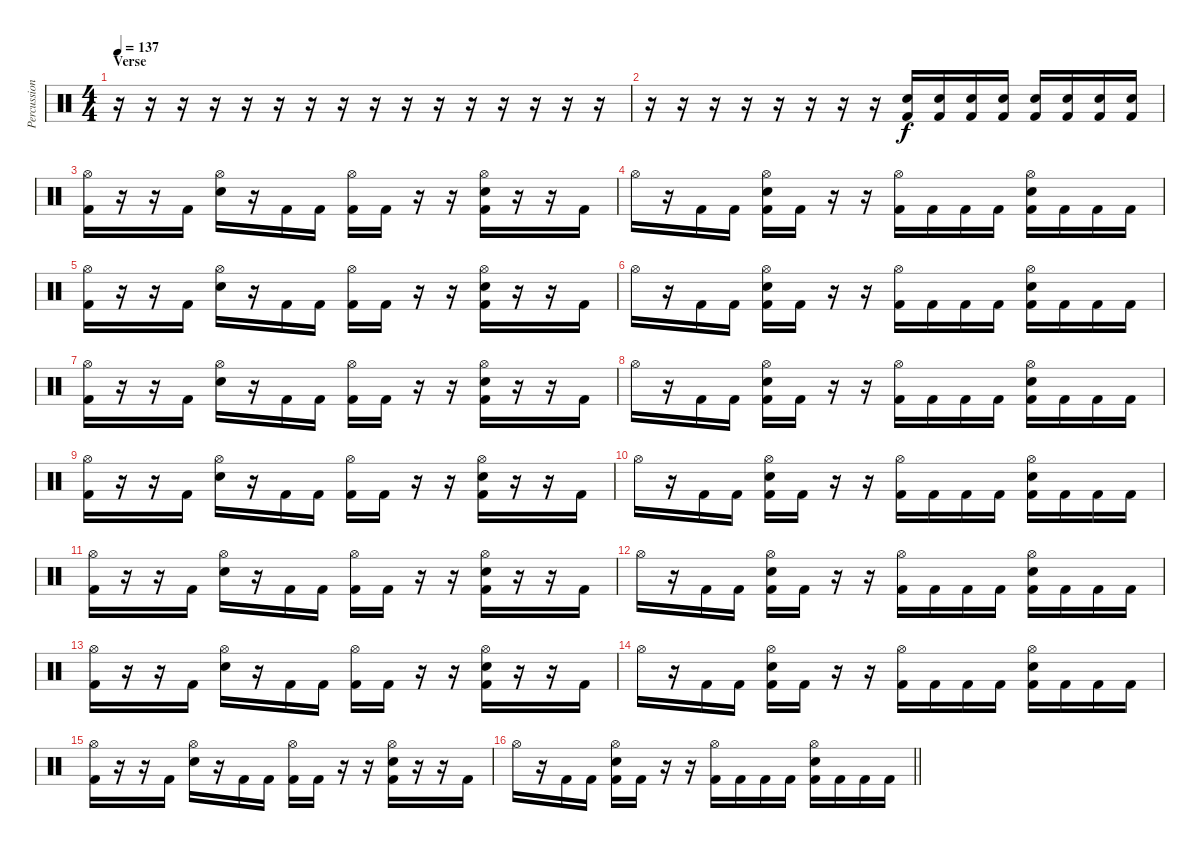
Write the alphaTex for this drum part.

\track ("Percussion" "Percussion") {instrument percussion}
\staff {score}
\articulation defaults
\ts (4 4)
\section ("" "Verse")
\tempo 137
\clef neutral
\ks c
r.16{dy f} r.16 r.16 r.16 r.16 r.16 r.16 r.16 r.16 r.16 r.16 r.16 r.16 r.16 r.16 r.16 |
r.16 r.16 r.16 r.16 r.16 r.16 r.16 r.16 ("Snare (hit) 2" "Kick (hit) 2").16 ("Snare (hit) 2" "Kick (hit) 2").16 ("Snare (hit) 2" "Kick (hit) 2").16 ("Snare (hit) 2" "Kick (hit) 2").16 ("Snare (hit) 2" "Kick (hit) 2").16 ("Snare (hit) 2" "Kick (hit) 2").16 ("Snare (hit) 2" "Kick (hit) 2").16 ("Snare (hit) 2" "Kick (hit) 2").16 |
("Hi-Hat (open)" "Kick (hit) 2").16 r.16 r.16 "Kick (hit) 2".16 ("Hi-Hat (open)" "Snare (hit) 2").16 r.16 "Kick (hit) 2".16 "Kick (hit) 2".16 ("Hi-Hat (open)" "Kick (hit) 2").16 "Kick (hit) 2".16 r.16 r.16 ("Hi-Hat (open)" "Snare (hit) 2" "Kick (hit) 2").16 r.16 r.16 "Kick (hit) 2".16 |
"Hi-Hat (open)".16 r.16 "Kick (hit) 2".16 "Kick (hit) 2".16 ("Hi-Hat (open)" "Snare (hit) 2" "Kick (hit) 2").16 "Kick (hit) 2".16 r.16 r.16 ("Hi-Hat (open)" "Kick (hit) 2").16 "Kick (hit) 2".16 "Kick (hit) 2".16 "Kick (hit) 2".16 ("Hi-Hat (open)" "Snare (hit) 2" "Kick (hit) 2").16 "Kick (hit) 2".16 "Kick (hit) 2".16 "Kick (hit) 2".16 |
("Hi-Hat (open)" "Kick (hit) 2").16 r.16 r.16 "Kick (hit) 2".16 ("Hi-Hat (open)" "Snare (hit) 2").16 r.16 "Kick (hit) 2".16 "Kick (hit) 2".16 ("Hi-Hat (open)" "Kick (hit) 2").16 "Kick (hit) 2".16 r.16 r.16 ("Hi-Hat (open)" "Snare (hit) 2" "Kick (hit) 2").16 r.16 r.16 "Kick (hit) 2".16 |
"Hi-Hat (open)".16 r.16 "Kick (hit) 2".16 "Kick (hit) 2".16 ("Hi-Hat (open)" "Snare (hit) 2" "Kick (hit) 2").16 "Kick (hit) 2".16 r.16 r.16 ("Hi-Hat (open)" "Kick (hit) 2").16 "Kick (hit) 2".16 "Kick (hit) 2".16 "Kick (hit) 2".16 ("Hi-Hat (open)" "Snare (hit) 2" "Kick (hit) 2").16 "Kick (hit) 2".16 "Kick (hit) 2".16 "Kick (hit) 2".16 |
("Hi-Hat (open)" "Kick (hit) 2").16 r.16 r.16 "Kick (hit) 2".16 ("Hi-Hat (open)" "Snare (hit) 2").16 r.16 "Kick (hit) 2".16 "Kick (hit) 2".16 ("Hi-Hat (open)" "Kick (hit) 2").16 "Kick (hit) 2".16 r.16 r.16 ("Hi-Hat (open)" "Snare (hit) 2" "Kick (hit) 2").16 r.16 r.16 "Kick (hit) 2".16 |
"Hi-Hat (open)".16 r.16 "Kick (hit) 2".16 "Kick (hit) 2".16 ("Hi-Hat (open)" "Snare (hit) 2" "Kick (hit) 2").16 "Kick (hit) 2".16 r.16 r.16 ("Hi-Hat (open)" "Kick (hit) 2").16 "Kick (hit) 2".16 "Kick (hit) 2".16 "Kick (hit) 2".16 ("Hi-Hat (open)" "Snare (hit) 2" "Kick (hit) 2").16 "Kick (hit) 2".16 "Kick (hit) 2".16 "Kick (hit) 2".16 |
("Hi-Hat (open)" "Kick (hit) 2").16 r.16 r.16 "Kick (hit) 2".16 ("Hi-Hat (open)" "Snare (hit) 2").16 r.16 "Kick (hit) 2".16 "Kick (hit) 2".16 ("Hi-Hat (open)" "Kick (hit) 2").16 "Kick (hit) 2".16 r.16 r.16 ("Hi-Hat (open)" "Snare (hit) 2" "Kick (hit) 2").16 r.16 r.16 "Kick (hit) 2".16 |
"Hi-Hat (open)".16 r.16 "Kick (hit) 2".16 "Kick (hit) 2".16 ("Hi-Hat (open)" "Snare (hit) 2" "Kick (hit) 2").16 "Kick (hit) 2".16 r.16 r.16 ("Hi-Hat (open)" "Kick (hit) 2").16 "Kick (hit) 2".16 "Kick (hit) 2".16 "Kick (hit) 2".16 ("Hi-Hat (open)" "Snare (hit) 2" "Kick (hit) 2").16 "Kick (hit) 2".16 "Kick (hit) 2".16 "Kick (hit) 2".16 |
("Hi-Hat (open)" "Kick (hit) 2").16 r.16 r.16 "Kick (hit) 2".16 ("Hi-Hat (open)" "Snare (hit) 2").16 r.16 "Kick (hit) 2".16 "Kick (hit) 2".16 ("Hi-Hat (open)" "Kick (hit) 2").16 "Kick (hit) 2".16 r.16 r.16 ("Hi-Hat (open)" "Snare (hit) 2" "Kick (hit) 2").16 r.16 r.16 "Kick (hit) 2".16 |
"Hi-Hat (open)".16 r.16 "Kick (hit) 2".16 "Kick (hit) 2".16 ("Hi-Hat (open)" "Snare (hit) 2" "Kick (hit) 2").16 "Kick (hit) 2".16 r.16 r.16 ("Hi-Hat (open)" "Kick (hit) 2").16 "Kick (hit) 2".16 "Kick (hit) 2".16 "Kick (hit) 2".16 ("Hi-Hat (open)" "Snare (hit) 2" "Kick (hit) 2").16 "Kick (hit) 2".16 "Kick (hit) 2".16 "Kick (hit) 2".16 |
("Hi-Hat (open)" "Kick (hit) 2").16 r.16 r.16 "Kick (hit) 2".16 ("Hi-Hat (open)" "Snare (hit) 2").16 r.16 "Kick (hit) 2".16 "Kick (hit) 2".16 ("Hi-Hat (open)" "Kick (hit) 2").16 "Kick (hit) 2".16 r.16 r.16 ("Hi-Hat (open)" "Snare (hit) 2" "Kick (hit) 2").16 r.16 r.16 "Kick (hit) 2".16 |
"Hi-Hat (open)".16 r.16 "Kick (hit) 2".16 "Kick (hit) 2".16 ("Hi-Hat (open)" "Snare (hit) 2" "Kick (hit) 2").16 "Kick (hit) 2".16 r.16 r.16 ("Hi-Hat (open)" "Kick (hit) 2").16 "Kick (hit) 2".16 "Kick (hit) 2".16 "Kick (hit) 2".16 ("Hi-Hat (open)" "Snare (hit) 2" "Kick (hit) 2").16 "Kick (hit) 2".16 "Kick (hit) 2".16 "Kick (hit) 2".16 |
("Hi-Hat (open)" "Kick (hit) 2").16 r.16 r.16 "Kick (hit) 2".16 ("Hi-Hat (open)" "Snare (hit) 2").16 r.16 "Kick (hit) 2".16 "Kick (hit) 2".16 ("Hi-Hat (open)" "Kick (hit) 2").16 "Kick (hit) 2".16 r.16 r.16 ("Hi-Hat (open)" "Snare (hit) 2" "Kick (hit) 2").16 r.16 r.16 "Kick (hit) 2".16 |
\barLineRight lightlight "Hi-Hat (open)".16
r.16 "Kick (hit) 2".16 "Kick (hit) 2".16 ("Hi-Hat (open)" "Snare (hit) 2" "Kick (hit) 2").16 "Kick (hit) 2".16 r.16 r.16 ("Hi-Hat (open)" "Kick (hit) 2").16 "Kick (hit) 2".16 "Kick (hit) 2".16 "Kick (hit) 2".16 ("Hi-Hat (open)" "Snare (hit) 2" "Kick (hit) 2").16 "Kick (hit) 2".16 "Kick (hit) 2".16 "Kick (hit) 2".16
